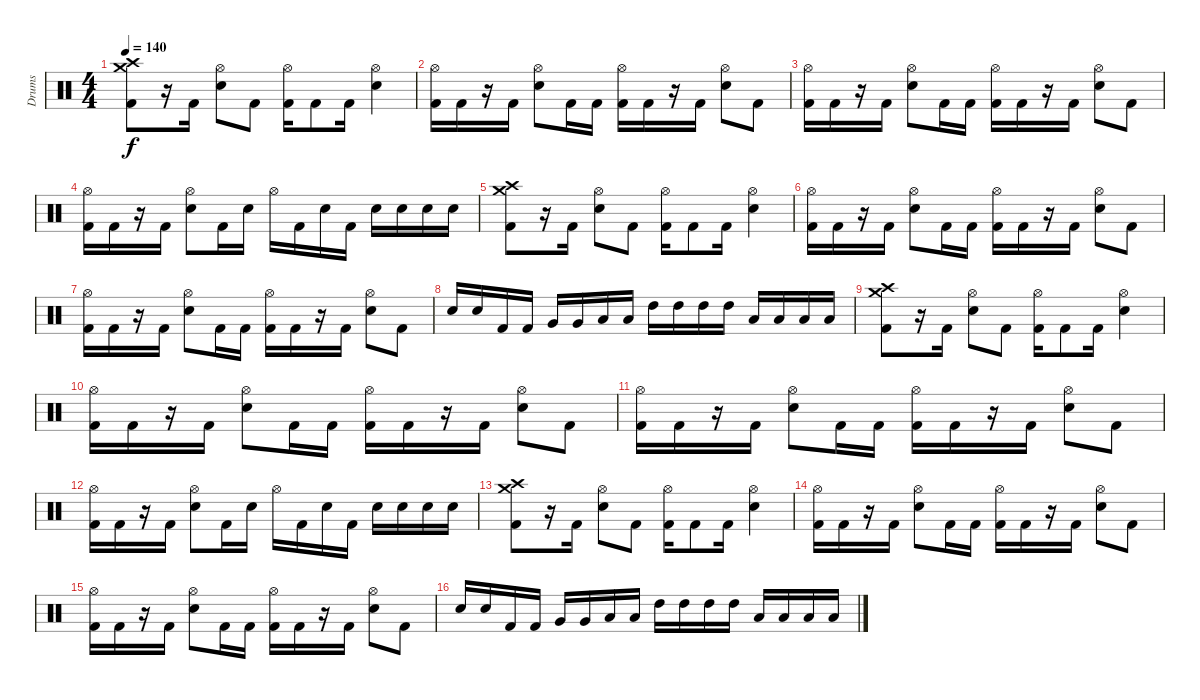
\track ("Drums" "Drums") {instrument percussion}
\staff {score}
\articulation defaults
\ts (4 4)
\tempo 140
\clef neutral
\ks c
("Crash medium (hit)" "Crash high (hit)" "Kick (hit) 2").8{dy f} r.16 "Kick (hit) 2".16 ("Hi-Hat (open)" "Snare (hit) 2").8 "Kick (hit) 2".8 ("Hi-Hat (open)" "Kick (hit) 2").16 "Kick (hit) 2".8 "Kick (hit) 2".16 ("Hi-Hat (open)" "Snare (hit) 2").4 |
("Hi-Hat (open)" "Kick (hit) 2").16 "Kick (hit) 2".16 r.16 "Kick (hit) 2".16 ("Hi-Hat (open)" "Snare (hit) 2").8 "Kick (hit) 2".16 "Kick (hit) 2".16 ("Hi-Hat (open)" "Kick (hit) 2").16 "Kick (hit) 2".16 r.16 "Kick (hit) 2".16 ("Hi-Hat (open)" "Snare (hit) 2").8 "Kick (hit) 2".8 |
("Hi-Hat (open)" "Kick (hit) 2").16 "Kick (hit) 2".16 r.16 "Kick (hit) 2".16 ("Hi-Hat (open)" "Snare (hit) 2").8 "Kick (hit) 2".16 "Kick (hit) 2".16 ("Hi-Hat (open)" "Kick (hit) 2").16 "Kick (hit) 2".16 r.16 "Kick (hit) 2".16 ("Hi-Hat (open)" "Snare (hit) 2").8 "Kick (hit) 2".8 |
("Hi-Hat (open)" "Kick (hit) 2").16 "Kick (hit) 2".16 r.16 "Kick (hit) 2".16 ("Hi-Hat (open)" "Snare (hit) 2").8 "Kick (hit) 2".16 "Snare (hit) 2".16 "Hi-Hat (open)".16 "Kick (hit) 2".16 "Snare (hit) 2".16 "Kick (hit) 2".16 "Snare (hit) 2".16 "Snare (hit) 2".16 "Snare (hit) 2".16 "Snare (hit) 2".16 |
("Crash medium (hit)" "Crash high (hit)" "Kick (hit) 2").8 r.16 "Kick (hit) 2".16 ("Hi-Hat (open)" "Snare (hit) 2").8 "Kick (hit) 2".8 ("Hi-Hat (open)" "Kick (hit) 2").16 "Kick (hit) 2".8 "Kick (hit) 2".16 ("Hi-Hat (open)" "Snare (hit) 2").4 |
("Hi-Hat (open)" "Kick (hit) 2").16 "Kick (hit) 2".16 r.16 "Kick (hit) 2".16 ("Hi-Hat (open)" "Snare (hit) 2").8 "Kick (hit) 2".16 "Kick (hit) 2".16 ("Hi-Hat (open)" "Kick (hit) 2").16 "Kick (hit) 2".16 r.16 "Kick (hit) 2".16 ("Hi-Hat (open)" "Snare (hit) 2").8 "Kick (hit) 2".8 |
("Hi-Hat (open)" "Kick (hit) 2").16 "Kick (hit) 2".16 r.16 "Kick (hit) 2".16 ("Hi-Hat (open)" "Snare (hit) 2").8 "Kick (hit) 2".16 "Kick (hit) 2".16 ("Hi-Hat (open)" "Kick (hit) 2").16 "Kick (hit) 2".16 r.16 "Kick (hit) 2".16 ("Hi-Hat (open)" "Snare (hit) 2").8 "Kick (hit) 2".8 |
"Snare (hit) 2".16 "Snare (hit) 2".16 "Kick (hit) 2".16 "Kick (hit) 2".16 "Very Low Tom (hit)".16 "Very Low Tom (hit)".16 "Low Floor Tom (hit)".16 "Low Floor Tom (hit)".16 "High Tom (hit)".16 "High Tom (hit)".16 "High Tom (hit)".16 "High Tom (hit)".16 "Low Tom (hit)".16 "Low Tom (hit)".16 "Low Tom (hit)".16 "Low Tom (hit)".16 |
("Crash medium (hit)" "Crash high (hit)" "Kick (hit) 2").8 r.16 "Kick (hit) 2".16 ("Hi-Hat (open)" "Snare (hit) 2").8 "Kick (hit) 2".8 ("Hi-Hat (open)" "Kick (hit) 2").16 "Kick (hit) 2".8 "Kick (hit) 2".16 ("Hi-Hat (open)" "Snare (hit) 2").4 |
("Hi-Hat (open)" "Kick (hit) 2").16 "Kick (hit) 2".16 r.16 "Kick (hit) 2".16 ("Hi-Hat (open)" "Snare (hit) 2").8 "Kick (hit) 2".16 "Kick (hit) 2".16 ("Hi-Hat (open)" "Kick (hit) 2").16 "Kick (hit) 2".16 r.16 "Kick (hit) 2".16 ("Hi-Hat (open)" "Snare (hit) 2").8 "Kick (hit) 2".8 |
("Hi-Hat (open)" "Kick (hit) 2").16 "Kick (hit) 2".16 r.16 "Kick (hit) 2".16 ("Hi-Hat (open)" "Snare (hit) 2").8 "Kick (hit) 2".16 "Kick (hit) 2".16 ("Hi-Hat (open)" "Kick (hit) 2").16 "Kick (hit) 2".16 r.16 "Kick (hit) 2".16 ("Hi-Hat (open)" "Snare (hit) 2").8 "Kick (hit) 2".8 |
("Hi-Hat (open)" "Kick (hit) 2").16 "Kick (hit) 2".16 r.16 "Kick (hit) 2".16 ("Hi-Hat (open)" "Snare (hit) 2").8 "Kick (hit) 2".16 "Snare (hit) 2".16 "Hi-Hat (open)".16 "Kick (hit) 2".16 "Snare (hit) 2".16 "Kick (hit) 2".16 "Snare (hit) 2".16 "Snare (hit) 2".16 "Snare (hit) 2".16 "Snare (hit) 2".16 |
("Crash medium (hit)" "Crash high (hit)" "Kick (hit) 2").8 r.16 "Kick (hit) 2".16 ("Hi-Hat (open)" "Snare (hit) 2").8 "Kick (hit) 2".8 ("Hi-Hat (open)" "Kick (hit) 2").16 "Kick (hit) 2".8 "Kick (hit) 2".16 ("Hi-Hat (open)" "Snare (hit) 2").4 |
("Hi-Hat (open)" "Kick (hit) 2").16 "Kick (hit) 2".16 r.16 "Kick (hit) 2".16 ("Hi-Hat (open)" "Snare (hit) 2").8 "Kick (hit) 2".16 "Kick (hit) 2".16 ("Hi-Hat (open)" "Kick (hit) 2").16 "Kick (hit) 2".16 r.16 "Kick (hit) 2".16 ("Hi-Hat (open)" "Snare (hit) 2").8 "Kick (hit) 2".8 |
("Hi-Hat (open)" "Kick (hit) 2").16 "Kick (hit) 2".16 r.16 "Kick (hit) 2".16 ("Hi-Hat (open)" "Snare (hit) 2").8 "Kick (hit) 2".16 "Kick (hit) 2".16 ("Hi-Hat (open)" "Kick (hit) 2").16 "Kick (hit) 2".16 r.16 "Kick (hit) 2".16 ("Hi-Hat (open)" "Snare (hit) 2").8 "Kick (hit) 2".8 |
"Snare (hit) 2".16 "Snare (hit) 2".16 "Kick (hit) 2".16 "Kick (hit) 2".16 "Very Low Tom (hit)".16 "Very Low Tom (hit)".16 "Low Floor Tom (hit)".16 "Low Floor Tom (hit)".16 "High Tom (hit)".16 "High Tom (hit)".16 "High Tom (hit)".16 "High Tom (hit)".16 "Low Tom (hit)".16 "Low Tom (hit)".16 "Low Tom (hit)".16 "Low Tom (hit)".16
